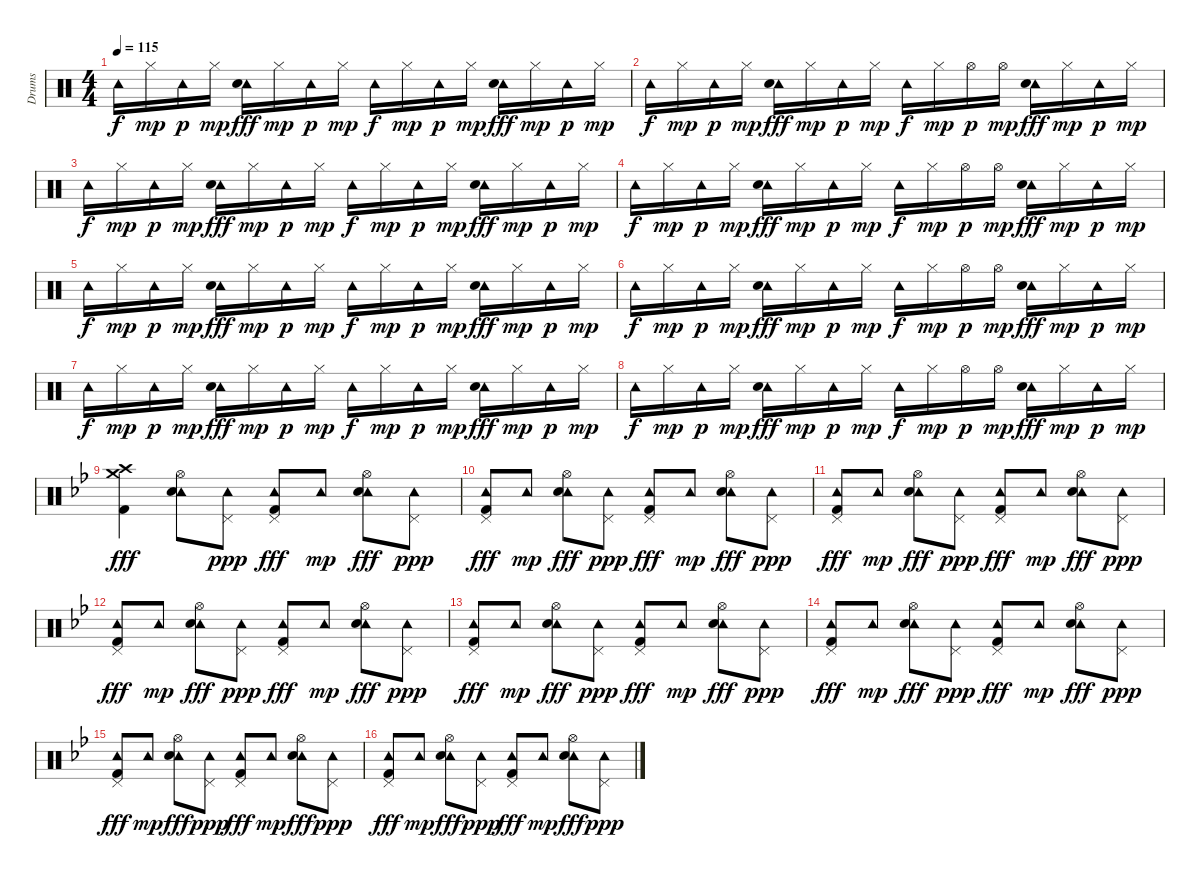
\track ("Drums" "Drums") {instrument percussion}
\staff {score}
\articulation defaults
\ts (4 4)
\tempo 115
\clef neutral
\ks c "Tambourine (hit)".16{dy f} "Hi-Hat (closed)".16{dy mp} "Tambourine (hit)".16{dy p} "Hi-Hat (closed)".16{dy mp}
("Tambourine (hit)" "Electric Snare (hit)").16{dy fff} "Hi-Hat (closed)".16{dy mp} "Tambourine (hit)".16{dy p} "Hi-Hat (closed)".16{dy mp} "Tambourine (hit)".16{dy f} "Hi-Hat (closed)".16{dy mp} "Tambourine (hit)".16{dy p} "Hi-Hat (closed)".16{dy mp} ("Tambourine (hit)" "Electric Snare (hit)").16{dy fff} "Hi-Hat (closed)".16{dy mp} "Tambourine (hit)".16{dy p} "Hi-Hat (closed)".16{dy mp} |
"Tambourine (hit)".16{dy f} "Hi-Hat (closed)".16{dy mp} "Tambourine (hit)".16{dy p} "Hi-Hat (closed)".16{dy mp} ("Tambourine (hit)" "Electric Snare (hit)").16{dy fff} "Hi-Hat (closed)".16{dy mp} "Tambourine (hit)".16{dy p} "Hi-Hat (closed)".16{dy mp} "Tambourine (hit)".16{dy f} "Hi-Hat (closed)".16{dy mp} "Hi-Hat (open)".16{dy p} "Hi-Hat (open)".16{dy mp} ("Tambourine (hit)" "Electric Snare (hit)").16{dy fff} "Hi-Hat (closed)".16{dy mp} "Tambourine (hit)".16{dy p} "Hi-Hat (closed)".16{dy mp} |
"Tambourine (hit)".16{dy f} "Hi-Hat (closed)".16{dy mp} "Tambourine (hit)".16{dy p} "Hi-Hat (closed)".16{dy mp} ("Tambourine (hit)" "Electric Snare (hit)").16{dy fff} "Hi-Hat (closed)".16{dy mp} "Tambourine (hit)".16{dy p} "Hi-Hat (closed)".16{dy mp} "Tambourine (hit)".16{dy f} "Hi-Hat (closed)".16{dy mp} "Tambourine (hit)".16{dy p} "Hi-Hat (closed)".16{dy mp} ("Tambourine (hit)" "Electric Snare (hit)").16{dy fff} "Hi-Hat (closed)".16{dy mp} "Tambourine (hit)".16{dy p} "Hi-Hat (closed)".16{dy mp} |
"Tambourine (hit)".16{dy f} "Hi-Hat (closed)".16{dy mp} "Tambourine (hit)".16{dy p} "Hi-Hat (closed)".16{dy mp} ("Tambourine (hit)" "Electric Snare (hit)").16{dy fff} "Hi-Hat (closed)".16{dy mp} "Tambourine (hit)".16{dy p} "Hi-Hat (closed)".16{dy mp} "Tambourine (hit)".16{dy f} "Hi-Hat (closed)".16{dy mp} "Hi-Hat (open)".16{dy p} "Hi-Hat (open)".16{dy mp} ("Tambourine (hit)" "Electric Snare (hit)").16{dy fff} "Hi-Hat (closed)".16{dy mp} "Tambourine (hit)".16{dy p} "Hi-Hat (closed)".16{dy mp} |
"Tambourine (hit)".16{dy f} "Hi-Hat (closed)".16{dy mp} "Tambourine (hit)".16{dy p} "Hi-Hat (closed)".16{dy mp} ("Tambourine (hit)" "Electric Snare (hit)").16{dy fff} "Hi-Hat (closed)".16{dy mp} "Tambourine (hit)".16{dy p} "Hi-Hat (closed)".16{dy mp} "Tambourine (hit)".16{dy f} "Hi-Hat (closed)".16{dy mp} "Tambourine (hit)".16{dy p} "Hi-Hat (closed)".16{dy mp} ("Tambourine (hit)" "Electric Snare (hit)").16{dy fff} "Hi-Hat (closed)".16{dy mp} "Tambourine (hit)".16{dy p} "Hi-Hat (closed)".16{dy mp} |
"Tambourine (hit)".16{dy f} "Hi-Hat (closed)".16{dy mp} "Tambourine (hit)".16{dy p} "Hi-Hat (closed)".16{dy mp} ("Tambourine (hit)" "Electric Snare (hit)").16{dy fff} "Hi-Hat (closed)".16{dy mp} "Tambourine (hit)".16{dy p} "Hi-Hat (closed)".16{dy mp} "Tambourine (hit)".16{dy f} "Hi-Hat (closed)".16{dy mp} "Hi-Hat (open)".16{dy p} "Hi-Hat (open)".16{dy mp} ("Tambourine (hit)" "Electric Snare (hit)").16{dy fff} "Hi-Hat (closed)".16{dy mp} "Tambourine (hit)".16{dy p} "Hi-Hat (closed)".16{dy mp} |
"Tambourine (hit)".16{dy f} "Hi-Hat (closed)".16{dy mp} "Tambourine (hit)".16{dy p} "Hi-Hat (closed)".16{dy mp} ("Tambourine (hit)" "Electric Snare (hit)").16{dy fff} "Hi-Hat (closed)".16{dy mp} "Tambourine (hit)".16{dy p} "Hi-Hat (closed)".16{dy mp} "Tambourine (hit)".16{dy f} "Hi-Hat (closed)".16{dy mp} "Tambourine (hit)".16{dy p} "Hi-Hat (closed)".16{dy mp} ("Tambourine (hit)" "Electric Snare (hit)").16{dy fff} "Hi-Hat (closed)".16{dy mp} "Tambourine (hit)".16{dy p} "Hi-Hat (closed)".16{dy mp} |
"Tambourine (hit)".16{dy f} "Hi-Hat (closed)".16{dy mp} "Tambourine (hit)".16{dy p} "Hi-Hat (closed)".16{dy mp} ("Tambourine (hit)" "Electric Snare (hit)").16{dy fff} "Hi-Hat (closed)".16{dy mp} "Tambourine (hit)".16{dy p} "Hi-Hat (closed)".16{dy mp} "Tambourine (hit)".16{dy f} "Hi-Hat (closed)".16{dy mp} "Hi-Hat (open)".16{dy p} "Hi-Hat (open)".16{dy mp} ("Tambourine (hit)" "Electric Snare (hit)").16{dy fff} "Hi-Hat (closed)".16{dy mp} "Tambourine (hit)".16{dy p} "Hi-Hat (closed)".16{dy mp} |
\ks bb
("Crash high (hit)" "Crash medium (hit)" "Kick (hit) 2").4{dy fff} ("Tambourine (hit)" "Hi-Hat (open)" "Electric Snare (hit)").8 ("Tambourine (hit)" "Pedal Hi-Hat (hit)").8{dy ppp} ("Tambourine (hit)" "Pedal Hi-Hat (hit)" "Kick (hit) 2").8{dy fff} "Tambourine (hit)".8{dy mp} ("Tambourine (hit)" "Hi-Hat (open)" "Electric Snare (hit)").8{dy fff} ("Tambourine (hit)" "Pedal Hi-Hat (hit)").8{dy ppp} |
("Tambourine (hit)" "Pedal Hi-Hat (hit)" "Kick (hit) 2").8{dy fff} "Tambourine (hit)".8{dy mp} ("Tambourine (hit)" "Hi-Hat (open)" "Electric Snare (hit)").8{dy fff} ("Tambourine (hit)" "Pedal Hi-Hat (hit)").8{dy ppp} ("Tambourine (hit)" "Pedal Hi-Hat (hit)" "Kick (hit) 2").8{dy fff} "Tambourine (hit)".8{dy mp} ("Tambourine (hit)" "Hi-Hat (open)" "Electric Snare (hit)").8{dy fff} ("Tambourine (hit)" "Pedal Hi-Hat (hit)").8{dy ppp} |
("Tambourine (hit)" "Pedal Hi-Hat (hit)" "Kick (hit) 2").8{dy fff} "Tambourine (hit)".8{dy mp} ("Tambourine (hit)" "Hi-Hat (open)" "Electric Snare (hit)").8{dy fff} ("Tambourine (hit)" "Pedal Hi-Hat (hit)").8{dy ppp} ("Tambourine (hit)" "Pedal Hi-Hat (hit)" "Kick (hit) 2").8{dy fff} "Tambourine (hit)".8{dy mp} ("Tambourine (hit)" "Hi-Hat (open)" "Electric Snare (hit)").8{dy fff} ("Tambourine (hit)" "Pedal Hi-Hat (hit)").8{dy ppp} |
("Tambourine (hit)" "Pedal Hi-Hat (hit)" "Kick (hit) 2").8{dy fff} "Tambourine (hit)".8{dy mp} ("Tambourine (hit)" "Hi-Hat (open)" "Electric Snare (hit)").8{dy fff} ("Tambourine (hit)" "Pedal Hi-Hat (hit)").8{dy ppp} ("Tambourine (hit)" "Pedal Hi-Hat (hit)" "Kick (hit) 2").8{dy fff} "Tambourine (hit)".8{dy mp} ("Tambourine (hit)" "Hi-Hat (open)" "Electric Snare (hit)").8{dy fff} ("Tambourine (hit)" "Pedal Hi-Hat (hit)").8{dy ppp} |
("Tambourine (hit)" "Pedal Hi-Hat (hit)" "Kick (hit) 2").8{dy fff} "Tambourine (hit)".8{dy mp} ("Tambourine (hit)" "Hi-Hat (open)" "Electric Snare (hit)").8{dy fff} ("Tambourine (hit)" "Pedal Hi-Hat (hit)").8{dy ppp} ("Tambourine (hit)" "Pedal Hi-Hat (hit)" "Kick (hit) 2").8{dy fff} "Tambourine (hit)".8{dy mp} ("Tambourine (hit)" "Hi-Hat (open)" "Electric Snare (hit)").8{dy fff} ("Tambourine (hit)" "Pedal Hi-Hat (hit)").8{dy ppp} |
("Tambourine (hit)" "Pedal Hi-Hat (hit)" "Kick (hit) 2").8{dy fff} "Tambourine (hit)".8{dy mp} ("Tambourine (hit)" "Hi-Hat (open)" "Electric Snare (hit)").8{dy fff} ("Tambourine (hit)" "Pedal Hi-Hat (hit)").8{dy ppp} ("Tambourine (hit)" "Pedal Hi-Hat (hit)" "Kick (hit) 2").8{dy fff} "Tambourine (hit)".8{dy mp} ("Tambourine (hit)" "Hi-Hat (open)" "Electric Snare (hit)").8{dy fff} ("Tambourine (hit)" "Pedal Hi-Hat (hit)").8{dy ppp} |
("Tambourine (hit)" "Pedal Hi-Hat (hit)" "Kick (hit) 2").8{dy fff} "Tambourine (hit)".8{dy mp} ("Tambourine (hit)" "Hi-Hat (open)" "Electric Snare (hit)").8{dy fff} ("Tambourine (hit)" "Pedal Hi-Hat (hit)").8{dy ppp} ("Tambourine (hit)" "Pedal Hi-Hat (hit)" "Kick (hit) 2").8{dy fff} "Tambourine (hit)".8{dy mp} ("Tambourine (hit)" "Hi-Hat (open)" "Electric Snare (hit)").8{dy fff} ("Tambourine (hit)" "Pedal Hi-Hat (hit)").8{dy ppp} |
("Tambourine (hit)" "Pedal Hi-Hat (hit)" "Kick (hit) 2").8{dy fff} "Tambourine (hit)".8{dy mp} ("Tambourine (hit)" "Hi-Hat (open)" "Electric Snare (hit)").8{dy fff} ("Tambourine (hit)" "Pedal Hi-Hat (hit)").8{dy ppp} ("Tambourine (hit)" "Pedal Hi-Hat (hit)" "Kick (hit) 2").8{dy fff} "Tambourine (hit)".8{dy mp} ("Tambourine (hit)" "Hi-Hat (open)" "Electric Snare (hit)").8{dy fff} ("Tambourine (hit)" "Pedal Hi-Hat (hit)").8{dy ppp}
